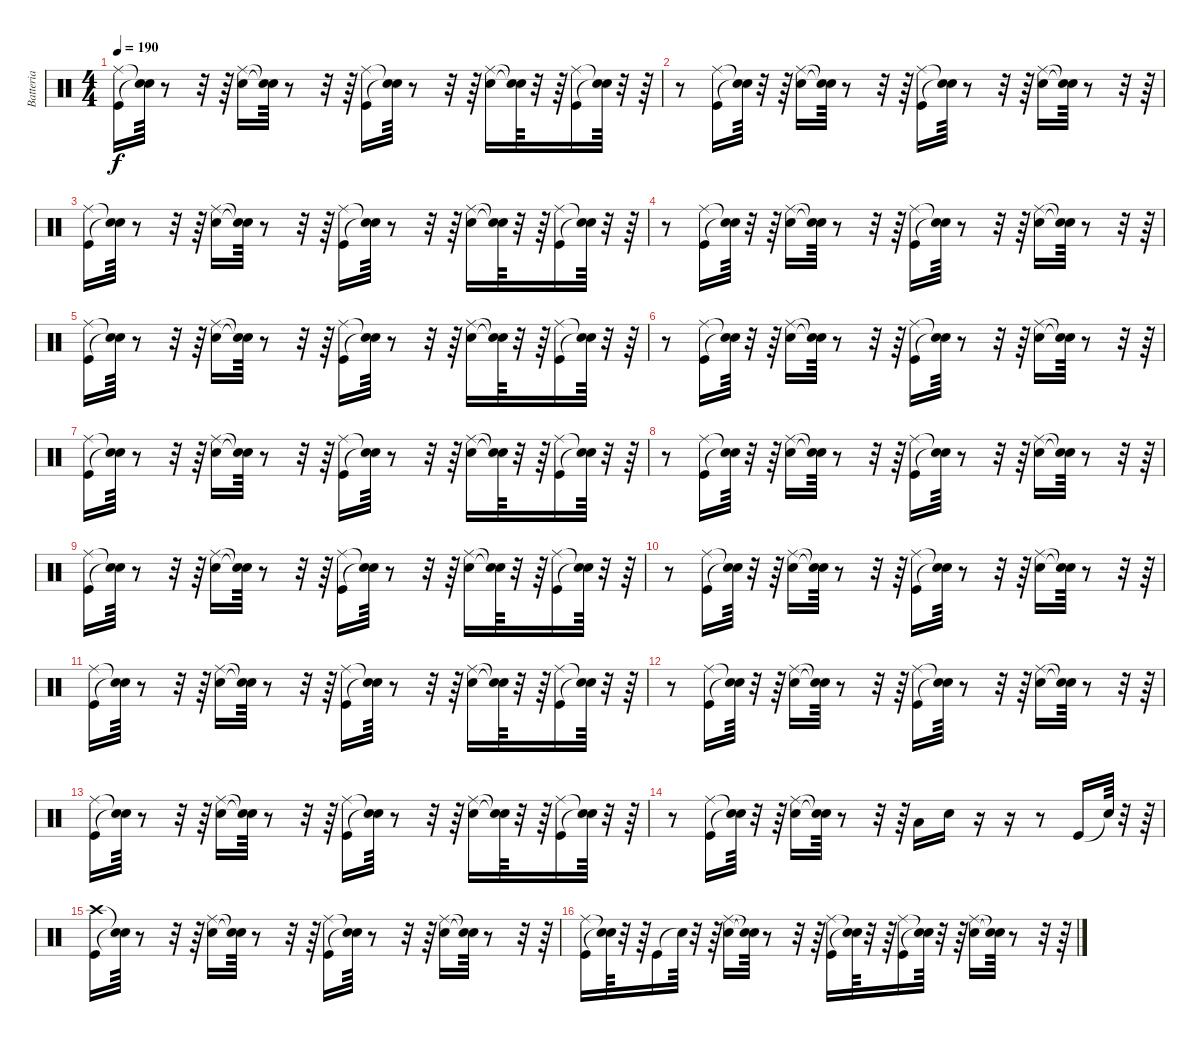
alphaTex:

\track ("Batteria" "Batteria") {instrument percussion}
\staff {score}
\articulation defaults
\ts (4 4)
\tempo 190
\clef neutral
\ks c
("Kick (hit)" "Ride (middle)").16{dy f} ("Snare (hit)"{t} "Snare (hit)"{t}).64 r.8 r.32 r.64 ("Ride (middle)" "Snare (hit) 2").16 ("Snare (hit)"{t} "Snare (hit)"{t}).64 r.8 r.32 r.64 ("Ride (middle)" "Kick (hit)").16 ("Snare (hit)"{t} "Snare (hit)"{t}).64 r.8 r.32 r.64 ("Ride (middle)" "Snare (hit) 2").16 ("Snare (hit)"{t} "Snare (hit)"{t}).64 r.32 r.64 ("Ride (middle)" "Kick (hit)").16 ("Snare (hit)"{t} "Snare (hit)"{t}).64 r.32 r.64 |
r.8 ("Ride (middle)" "Kick (hit)").16 ("Snare (hit)"{t} "Snare (hit)"{t}).64 r.32 r.64 ("Snare (hit) 2" "Ride (middle)").16 ("Snare (hit)"{t} "Snare (hit)"{t}).64 r.8 r.32 r.64 ("Kick (hit)" "Ride (middle)").16 ("Snare (hit)"{t} "Snare (hit)"{t}).64 r.8 r.32 r.64 ("Snare (hit) 2" "Ride (middle)").16 ("Snare (hit)"{t} "Snare (hit)"{t}).64 r.8 r.32 r.64 |
("Kick (hit)" "Ride (middle)").16 ("Snare (hit)"{t} "Snare (hit)"{t}).64 r.8 r.32 r.64 ("Ride (middle)" "Snare (hit) 2").16 ("Snare (hit)"{t} "Snare (hit)"{t}).64 r.8 r.32 r.64 ("Ride (middle)" "Kick (hit)").16 ("Snare (hit)"{t} "Snare (hit)"{t}).64 r.8 r.32 r.64 ("Ride (middle)" "Snare (hit) 2").16 ("Snare (hit)"{t} "Snare (hit)"{t}).64 r.32 r.64 ("Ride (middle)" "Kick (hit)").16 ("Snare (hit)"{t} "Snare (hit)"{t}).64 r.32 r.64 |
r.8 ("Ride (middle)" "Kick (hit)").16 ("Snare (hit)"{t} "Snare (hit)"{t}).64 r.32 r.64 ("Snare (hit) 2" "Ride (middle)").16 ("Snare (hit)"{t} "Snare (hit)"{t}).64 r.8 r.32 r.64 ("Kick (hit)" "Ride (middle)").16 ("Snare (hit)"{t} "Snare (hit)"{t}).64 r.8 r.32 r.64 ("Snare (hit) 2" "Ride (middle)").16 ("Snare (hit)"{t} "Snare (hit)"{t}).64 r.8 r.32 r.64 |
("Kick (hit)" "Ride (middle)").16 ("Snare (hit)"{t} "Snare (hit)"{t}).64 r.8 r.32 r.64 ("Ride (middle)" "Snare (hit) 2").16 ("Snare (hit)"{t} "Snare (hit)"{t}).64 r.8 r.32 r.64 ("Ride (middle)" "Kick (hit)").16 ("Snare (hit)"{t} "Snare (hit)"{t}).64 r.8 r.32 r.64 ("Ride (middle)" "Snare (hit) 2").16 ("Snare (hit)"{t} "Snare (hit)"{t}).64 r.32 r.64 ("Ride (middle)" "Kick (hit)").16 ("Snare (hit)"{t} "Snare (hit)"{t}).64 r.32 r.64 |
r.8 ("Ride (middle)" "Kick (hit)").16 ("Snare (hit)"{t} "Snare (hit)"{t}).64 r.32 r.64 ("Snare (hit) 2" "Ride (middle)").16 ("Snare (hit)"{t} "Snare (hit)"{t}).64 r.8 r.32 r.64 ("Kick (hit)" "Ride (middle)").16 ("Snare (hit)"{t} "Snare (hit)"{t}).64 r.8 r.32 r.64 ("Snare (hit) 2" "Ride (middle)").16 ("Snare (hit)"{t} "Snare (hit)"{t}).64 r.8 r.32 r.64 |
("Kick (hit)" "Ride (middle)").16 ("Snare (hit)"{t} "Snare (hit)"{t}).64 r.8 r.32 r.64 ("Ride (middle)" "Snare (hit) 2").16 ("Snare (hit)"{t} "Snare (hit)"{t}).64 r.8 r.32 r.64 ("Ride (middle)" "Kick (hit)").16 ("Snare (hit)"{t} "Snare (hit)"{t}).64 r.8 r.32 r.64 ("Ride (middle)" "Snare (hit) 2").16 ("Snare (hit)"{t} "Snare (hit)"{t}).64 r.32 r.64 ("Ride (middle)" "Kick (hit)").16 ("Snare (hit)"{t} "Snare (hit)"{t}).64 r.32 r.64 |
r.8 ("Ride (middle)" "Kick (hit)").16 ("Snare (hit)"{t} "Snare (hit)"{t}).64 r.32 r.64 ("Snare (hit) 2" "Ride (middle)").16 ("Snare (hit)"{t} "Snare (hit)"{t}).64 r.8 r.32 r.64 ("Kick (hit)" "Ride (middle)").16 ("Snare (hit)"{t} "Snare (hit)"{t}).64 r.8 r.32 r.64 ("Snare (hit) 2" "Ride (middle)").16 ("Snare (hit)"{t} "Snare (hit)"{t}).64 r.8 r.32 r.64 |
("Kick (hit)" "Ride (middle)").16 ("Snare (hit)"{t} "Snare (hit)"{t}).64 r.8 r.32 r.64 ("Ride (middle)" "Snare (hit) 2").16 ("Snare (hit)"{t} "Snare (hit)"{t}).64 r.8 r.32 r.64 ("Ride (middle)" "Kick (hit)").16 ("Snare (hit)"{t} "Snare (hit)"{t}).64 r.8 r.32 r.64 ("Ride (middle)" "Snare (hit) 2").16 ("Snare (hit)"{t} "Snare (hit)"{t}).64 r.32 r.64 ("Ride (middle)" "Kick (hit)").16 ("Snare (hit)"{t} "Snare (hit)"{t}).64 r.32 r.64 |
r.8 ("Ride (middle)" "Kick (hit)").16 ("Snare (hit)"{t} "Snare (hit)"{t}).64 r.32 r.64 ("Snare (hit) 2" "Ride (middle)").16 ("Snare (hit)"{t} "Snare (hit)"{t}).64 r.8 r.32 r.64 ("Kick (hit)" "Ride (middle)").16 ("Snare (hit)"{t} "Snare (hit)"{t}).64 r.8 r.32 r.64 ("Snare (hit) 2" "Ride (middle)").16 ("Snare (hit)"{t} "Snare (hit)"{t}).64 r.8 r.32 r.64 |
("Kick (hit)" "Ride (middle)").16 ("Snare (hit)"{t} "Snare (hit)"{t}).64 r.8 r.32 r.64 ("Ride (middle)" "Snare (hit) 2").16 ("Snare (hit)"{t} "Snare (hit)"{t}).64 r.8 r.32 r.64 ("Ride (middle)" "Kick (hit)").16 ("Snare (hit)"{t} "Snare (hit)"{t}).64 r.8 r.32 r.64 ("Ride (middle)" "Snare (hit) 2").16 ("Snare (hit)"{t} "Snare (hit)"{t}).64 r.32 r.64 ("Ride (middle)" "Kick (hit)").16 ("Snare (hit)"{t} "Snare (hit)"{t}).64 r.32 r.64 |
r.8 ("Ride (middle)" "Kick (hit)").16 ("Snare (hit)"{t} "Snare (hit)"{t}).64 r.32 r.64 ("Snare (hit) 2" "Ride (middle)").16 ("Snare (hit)"{t} "Snare (hit)"{t}).64 r.8 r.32 r.64 ("Kick (hit)" "Ride (middle)").16 ("Snare (hit)"{t} "Snare (hit)"{t}).64 r.8 r.32 r.64 ("Snare (hit) 2" "Ride (middle)").16 ("Snare (hit)"{t} "Snare (hit)"{t}).64 r.8 r.32 r.64 |
("Kick (hit)" "Ride (middle)").16 ("Snare (hit)"{t} "Snare (hit)"{t}).64 r.8 r.32 r.64 ("Ride (middle)" "Snare (hit) 2").16 ("Snare (hit)"{t} "Snare (hit)"{t}).64 r.8 r.32 r.64 ("Ride (middle)" "Kick (hit)").16 ("Snare (hit)"{t} "Snare (hit)"{t}).64 r.8 r.32 r.64 ("Ride (middle)" "Snare (hit) 2").16 ("Snare (hit)"{t} "Snare (hit)"{t}).64 r.32 r.64 ("Ride (middle)" "Kick (hit)").16 ("Snare (hit)"{t} "Snare (hit)"{t}).64 r.32 r.64 |
r.8 ("Ride (middle)" "Kick (hit)").16 ("Snare (hit)"{t} "Snare (hit)"{t}).64 r.32 r.64 ("Snare (hit) 2" "Ride (middle)").16 ("Snare (hit)"{t} "Snare (hit)"{t}).64 r.8 r.32 r.64 "Low Tom (hit)".16 "Snare (hit) 2".16 r.16 r.16 r.8 "Kick (hit)".16 "Snare (hit)"{t}.64 r.32 r.64 |
("Kick (hit)" "Crash high (hit)").16 ("Snare (hit)"{t} "Snare (hit)"{t}).64 r.8 r.32 r.64 ("Ride (middle)" "Snare (hit) 2").16 ("Snare (hit)"{t} "Snare (hit)"{t}).64 r.8 r.32 r.64 ("Ride (middle)" "Kick (hit)").16 ("Snare (hit)"{t} "Snare (hit)"{t}).64 r.8 r.32 r.64 ("Ride (middle)" "Snare (hit) 2").16 ("Snare (hit)"{t} "Snare (hit)"{t}).64 r.8 r.32 r.64 |
("Ride (middle)" "Kick (hit)").16 ("Snare (hit)"{t} "Snare (hit)"{t}).64 r.32 r.64 "Kick (hit)".16 "Snare (hit)"{t}.64 r.32 r.64 ("Snare (hit) 2" "Ride (middle)").16 ("Snare (hit)"{t} "Snare (hit)"{t}).64 r.8 r.32 r.64 ("Kick (hit)" "Ride (middle)").16 ("Snare (hit)"{t} "Snare (hit)"{t}).64 r.32 r.64 ("Ride (middle)" "Kick (hit)").16 ("Snare (hit)"{t} "Snare (hit)"{t}).64 r.32 r.64 ("Snare (hit) 2" "Ride (middle)").16 ("Snare (hit)"{t} "Snare (hit)"{t}).64 r.8 r.32 r.64
